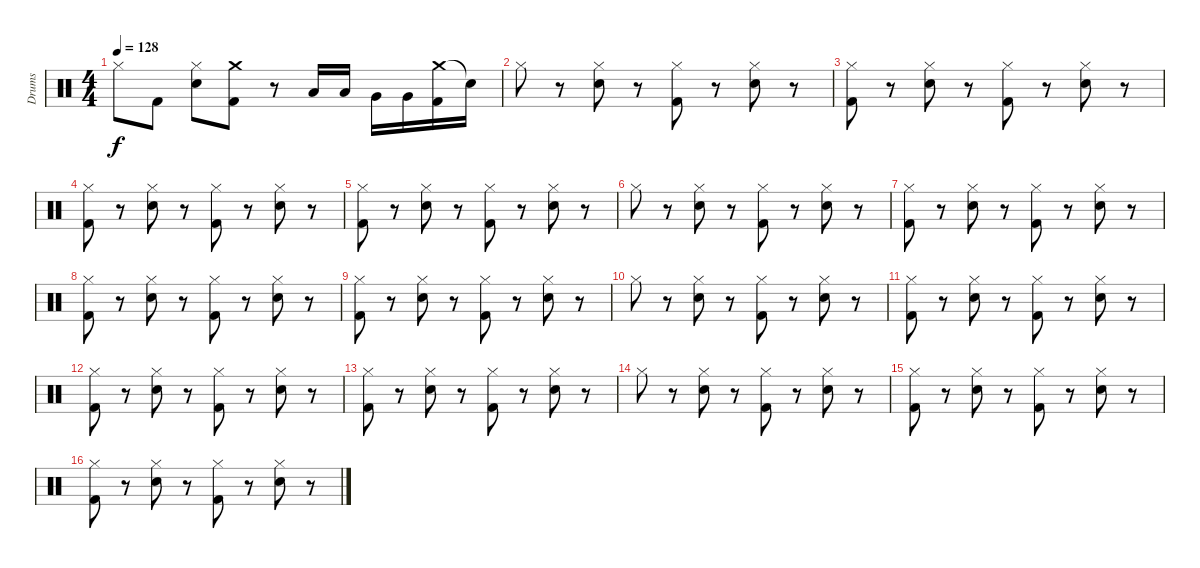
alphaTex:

\track ("Drums" "Drums") {instrument percussion}
\staff {score}
\articulation defaults
\ts (4 4)
\tempo 128
\clef neutral
\ks c "Hi-Hat (closed)".8{dy f} "Kick (hit) 2".8
("Hi-Hat (closed)" "Snare (hit) 2").8 ("Crash medium (hit)" "Kick (hit) 2").8 r.8 "Low Tom (hit)".16 "Low Tom (hit)".16 "Very Low Tom (hit)".16 "Very Low Tom (hit)".16 ("Crash medium (hit)" "Kick (hit) 2").16 "Snare (hit)"{t}.16 |
"Hi-Hat (closed)".8 r.8 ("Hi-Hat (closed)" "Snare (hit) 2").8 r.8 ("Hi-Hat (closed)" "Kick (hit) 2").8 r.8 ("Hi-Hat (closed)" "Snare (hit) 2").8 r.8 |
("Hi-Hat (closed)" "Kick (hit) 2").8 r.8 ("Hi-Hat (closed)" "Snare (hit) 2").8 r.8 ("Hi-Hat (closed)" "Kick (hit) 2").8 r.8 ("Hi-Hat (closed)" "Snare (hit) 2").8 r.8 |
("Hi-Hat (closed)" "Kick (hit) 2").8 r.8 ("Hi-Hat (closed)" "Snare (hit) 2").8 r.8 ("Hi-Hat (closed)" "Kick (hit) 2").8 r.8 ("Hi-Hat (closed)" "Snare (hit) 2").8 r.8 |
("Hi-Hat (closed)" "Kick (hit) 2").8 r.8 ("Hi-Hat (closed)" "Snare (hit) 2").8 r.8 ("Hi-Hat (closed)" "Kick (hit) 2").8 r.8 ("Hi-Hat (closed)" "Snare (hit) 2").8 r.8 |
"Hi-Hat (closed)".8 r.8 ("Hi-Hat (closed)" "Snare (hit) 2").8 r.8 ("Hi-Hat (closed)" "Kick (hit) 2").8 r.8 ("Hi-Hat (closed)" "Snare (hit) 2").8 r.8 |
("Hi-Hat (closed)" "Kick (hit) 2").8 r.8 ("Hi-Hat (closed)" "Snare (hit) 2").8 r.8 ("Hi-Hat (closed)" "Kick (hit) 2").8 r.8 ("Hi-Hat (closed)" "Snare (hit) 2").8 r.8 |
("Hi-Hat (closed)" "Kick (hit) 2").8 r.8 ("Hi-Hat (closed)" "Snare (hit) 2").8 r.8 ("Hi-Hat (closed)" "Kick (hit) 2").8 r.8 ("Hi-Hat (closed)" "Snare (hit) 2").8 r.8 |
("Hi-Hat (closed)" "Kick (hit) 2").8 r.8 ("Hi-Hat (closed)" "Snare (hit) 2").8 r.8 ("Hi-Hat (closed)" "Kick (hit) 2").8 r.8 ("Hi-Hat (closed)" "Snare (hit) 2").8 r.8 |
"Hi-Hat (closed)".8 r.8 ("Hi-Hat (closed)" "Snare (hit) 2").8 r.8 ("Hi-Hat (closed)" "Kick (hit) 2").8 r.8 ("Hi-Hat (closed)" "Snare (hit) 2").8 r.8 |
("Hi-Hat (closed)" "Kick (hit) 2").8 r.8 ("Hi-Hat (closed)" "Snare (hit) 2").8 r.8 ("Hi-Hat (closed)" "Kick (hit) 2").8 r.8 ("Hi-Hat (closed)" "Snare (hit) 2").8 r.8 |
("Hi-Hat (closed)" "Kick (hit) 2").8 r.8 ("Hi-Hat (closed)" "Snare (hit) 2").8 r.8 ("Hi-Hat (closed)" "Kick (hit) 2").8 r.8 ("Hi-Hat (closed)" "Snare (hit) 2").8 r.8 |
("Hi-Hat (closed)" "Kick (hit) 2").8 r.8 ("Hi-Hat (closed)" "Snare (hit) 2").8 r.8 ("Hi-Hat (closed)" "Kick (hit) 2").8 r.8 ("Hi-Hat (closed)" "Snare (hit) 2").8 r.8 |
"Hi-Hat (closed)".8 r.8 ("Hi-Hat (closed)" "Snare (hit) 2").8 r.8 ("Hi-Hat (closed)" "Kick (hit) 2").8 r.8 ("Hi-Hat (closed)" "Snare (hit) 2").8 r.8 |
("Hi-Hat (closed)" "Kick (hit) 2").8 r.8 ("Hi-Hat (closed)" "Snare (hit) 2").8 r.8 ("Hi-Hat (closed)" "Kick (hit) 2").8 r.8 ("Hi-Hat (closed)" "Snare (hit) 2").8 r.8 |
("Hi-Hat (closed)" "Kick (hit) 2").8 r.8 ("Hi-Hat (closed)" "Snare (hit) 2").8 r.8 ("Hi-Hat (closed)" "Kick (hit) 2").8 r.8 ("Hi-Hat (closed)" "Snare (hit) 2").8 r.8
